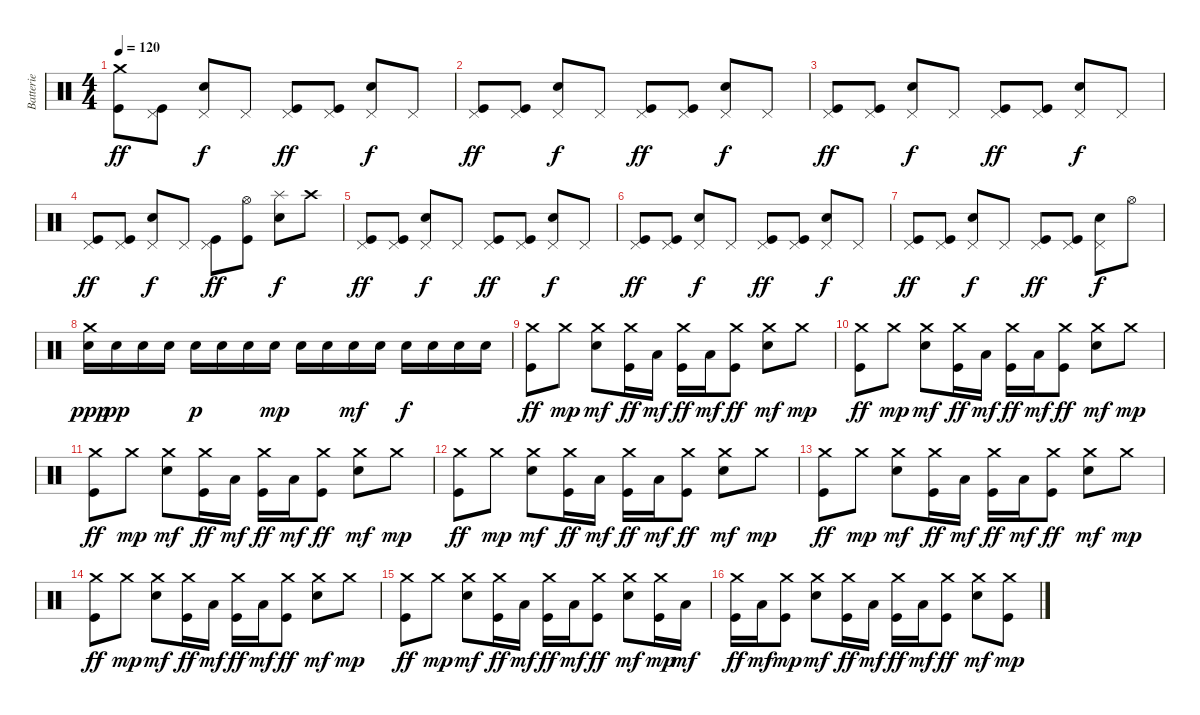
\track ("Batterie" "Batterie") {instrument percussion}
\staff {score}
\articulation defaults
\ts (4 4)
\tempo 120
\clef neutral
\ks c
("Crash medium (hit)" "Kick (hit)").8{dy ff} ("Pedal Hi-Hat (hit)" "Kick (hit)").8 ("Pedal Hi-Hat (hit)" "Electric Snare (hit)").8{dy f} "Pedal Hi-Hat (hit)".8 ("Pedal Hi-Hat (hit)" "Kick (hit)").8{dy ff} ("Pedal Hi-Hat (hit)" "Kick (hit)").8 ("Pedal Hi-Hat (hit)" "Electric Snare (hit)").8{dy f} "Pedal Hi-Hat (hit)".8 |
("Pedal Hi-Hat (hit)" "Kick (hit)").8{dy ff} ("Pedal Hi-Hat (hit)" "Kick (hit)").8 ("Pedal Hi-Hat (hit)" "Electric Snare (hit)").8{dy f} "Pedal Hi-Hat (hit)".8 ("Pedal Hi-Hat (hit)" "Kick (hit)").8{dy ff} ("Pedal Hi-Hat (hit)" "Kick (hit)").8 ("Pedal Hi-Hat (hit)" "Electric Snare (hit)").8{dy f} "Pedal Hi-Hat (hit)".8 |
("Pedal Hi-Hat (hit)" "Kick (hit)").8{dy ff} ("Pedal Hi-Hat (hit)" "Kick (hit)").8 ("Pedal Hi-Hat (hit)" "Electric Snare (hit)").8{dy f} "Pedal Hi-Hat (hit)".8 ("Pedal Hi-Hat (hit)" "Kick (hit)").8{dy ff} ("Pedal Hi-Hat (hit)" "Kick (hit)").8 ("Pedal Hi-Hat (hit)" "Electric Snare (hit)").8{dy f} "Pedal Hi-Hat (hit)".8 |
("Pedal Hi-Hat (hit)" "Kick (hit)").8{dy ff} ("Pedal Hi-Hat (hit)" "Kick (hit)").8 ("Pedal Hi-Hat (hit)" "Electric Snare (hit)").8{dy f} "Pedal Hi-Hat (hit)".8 ("Pedal Hi-Hat (hit)" "Kick (hit)").8{dy ff} ("Hi-Hat (open)" "Kick (hit)").8 ("Splash (hit)" "Electric Snare (hit)").8{dy f} "Crash high (hit)".8 |
("Pedal Hi-Hat (hit)" "Kick (hit)").8{dy ff} ("Pedal Hi-Hat (hit)" "Kick (hit)").8 ("Pedal Hi-Hat (hit)" "Electric Snare (hit)").8{dy f} "Pedal Hi-Hat (hit)".8 ("Pedal Hi-Hat (hit)" "Kick (hit)").8{dy ff} ("Pedal Hi-Hat (hit)" "Kick (hit)").8 ("Pedal Hi-Hat (hit)" "Electric Snare (hit)").8{dy f} "Pedal Hi-Hat (hit)".8 |
("Pedal Hi-Hat (hit)" "Kick (hit)").8{dy ff} ("Pedal Hi-Hat (hit)" "Kick (hit)").8 ("Pedal Hi-Hat (hit)" "Electric Snare (hit)").8{dy f} "Pedal Hi-Hat (hit)".8 ("Pedal Hi-Hat (hit)" "Kick (hit)").8{dy ff} ("Pedal Hi-Hat (hit)" "Kick (hit)").8 ("Pedal Hi-Hat (hit)" "Electric Snare (hit)").8{dy f} "Pedal Hi-Hat (hit)".8 |
("Pedal Hi-Hat (hit)" "Kick (hit)").8{dy ff} ("Pedal Hi-Hat (hit)" "Kick (hit)").8 ("Pedal Hi-Hat (hit)" "Electric Snare (hit)").8{dy f} "Pedal Hi-Hat (hit)".8 ("Pedal Hi-Hat (hit)" "Kick (hit)").8{dy ff} ("Pedal Hi-Hat (hit)" "Kick (hit)").8 ("Pedal Hi-Hat (hit)" "Electric Snare (hit)").8{dy f} "Hi-Hat (open)".8 |
("Crash medium (hit)" "Snare (hit) 2").16{dy ppp} "Snare (hit) 2".16{dy pp} "Snare (hit) 2".16 "Snare (hit) 2".16 "Snare (hit) 2".16{dy p} "Snare (hit) 2".16 "Snare (hit) 2".16 "Snare (hit) 2".16{dy mp} "Snare (hit) 2".16 "Snare (hit) 2".16 "Snare (hit) 2".16{dy mf} "Snare (hit) 2".16 "Snare (hit) 2".16{dy f} "Snare (hit) 2".16 "Snare (hit) 2".16 "Snare (hit) 2".16 |
("Crash medium (hit)" "Kick (hit)").8{dy ff} "Crash medium (hit)".8{dy mp} ("Crash medium (hit)" "Snare (hit) 2").8{dy mf} ("Crash medium (hit)" "Kick (hit)").16{dy ff} "Low Tom (hit)".16{dy mf} ("Crash medium (hit)" "Kick (hit)").16{dy ff} "Low Tom (hit)".16{dy mf} ("Crash medium (hit)" "Kick (hit)").8{dy ff} ("Crash medium (hit)" "Snare (hit) 2").8{dy mf} "Crash medium (hit)".8{dy mp} |
("Crash medium (hit)" "Kick (hit)").8{dy ff} "Crash medium (hit)".8{dy mp} ("Crash medium (hit)" "Snare (hit) 2").8{dy mf} ("Crash medium (hit)" "Kick (hit)").16{dy ff} "Low Tom (hit)".16{dy mf} ("Crash medium (hit)" "Kick (hit)").16{dy ff} "Low Tom (hit)".16{dy mf} ("Crash medium (hit)" "Kick (hit)").8{dy ff} ("Crash medium (hit)" "Snare (hit) 2").8{dy mf} "Crash medium (hit)".8{dy mp} |
("Crash medium (hit)" "Kick (hit)").8{dy ff} "Crash medium (hit)".8{dy mp} ("Crash medium (hit)" "Snare (hit) 2").8{dy mf} ("Crash medium (hit)" "Kick (hit)").16{dy ff} "Low Tom (hit)".16{dy mf} ("Crash medium (hit)" "Kick (hit)").16{dy ff} "Low Tom (hit)".16{dy mf} ("Crash medium (hit)" "Kick (hit)").8{dy ff} ("Crash medium (hit)" "Snare (hit) 2").8{dy mf} "Crash medium (hit)".8{dy mp} |
("Crash medium (hit)" "Kick (hit)").8{dy ff} "Crash medium (hit)".8{dy mp} ("Crash medium (hit)" "Snare (hit) 2").8{dy mf} ("Crash medium (hit)" "Kick (hit)").16{dy ff} "Low Tom (hit)".16{dy mf} ("Crash medium (hit)" "Kick (hit)").16{dy ff} "Low Tom (hit)".16{dy mf} ("Crash medium (hit)" "Kick (hit)").8{dy ff} ("Crash medium (hit)" "Snare (hit) 2").8{dy mf} "Crash medium (hit)".8{dy mp} |
("Crash medium (hit)" "Kick (hit)").8{dy ff} "Crash medium (hit)".8{dy mp} ("Crash medium (hit)" "Snare (hit) 2").8{dy mf} ("Crash medium (hit)" "Kick (hit)").16{dy ff} "Low Tom (hit)".16{dy mf} ("Crash medium (hit)" "Kick (hit)").16{dy ff} "Low Tom (hit)".16{dy mf} ("Crash medium (hit)" "Kick (hit)").8{dy ff} ("Crash medium (hit)" "Snare (hit) 2").8{dy mf} "Crash medium (hit)".8{dy mp} |
("Crash medium (hit)" "Kick (hit)").8{dy ff} "Crash medium (hit)".8{dy mp} ("Crash medium (hit)" "Snare (hit) 2").8{dy mf} ("Crash medium (hit)" "Kick (hit)").16{dy ff} "Low Tom (hit)".16{dy mf} ("Crash medium (hit)" "Kick (hit)").16{dy ff} "Low Tom (hit)".16{dy mf} ("Crash medium (hit)" "Kick (hit)").8{dy ff} ("Crash medium (hit)" "Snare (hit) 2").8{dy mf} "Crash medium (hit)".8{dy mp} |
("Crash medium (hit)" "Kick (hit)").8{dy ff} "Crash medium (hit)".8{dy mp} ("Crash medium (hit)" "Snare (hit) 2").8{dy mf} ("Crash medium (hit)" "Kick (hit)").16{dy ff} "Low Tom (hit)".16{dy mf} ("Crash medium (hit)" "Kick (hit)").16{dy ff} "Low Tom (hit)".16{dy mf} ("Crash medium (hit)" "Kick (hit)").8{dy ff} ("Crash medium (hit)" "Snare (hit) 2").8{dy mf} ("Crash medium (hit)" "Kick (hit)").16{dy mp} "Low Tom (hit)".16{dy mf} |
("Crash medium (hit)" "Kick (hit)").16{dy ff} "Low Tom (hit)".16{dy mf} ("Crash medium (hit)" "Kick (hit)").8{dy mp} ("Crash medium (hit)" "Snare (hit) 2").8{dy mf} ("Crash medium (hit)" "Kick (hit)").16{dy ff} "Low Tom (hit)".16{dy mf} ("Crash medium (hit)" "Kick (hit)").16{dy ff} "Low Tom (hit)".16{dy mf} ("Crash medium (hit)" "Kick (hit)").8{dy ff} ("Crash medium (hit)" "Snare (hit) 2").8{dy mf} ("Crash medium (hit)" "Kick (hit)").8{dy mp}
